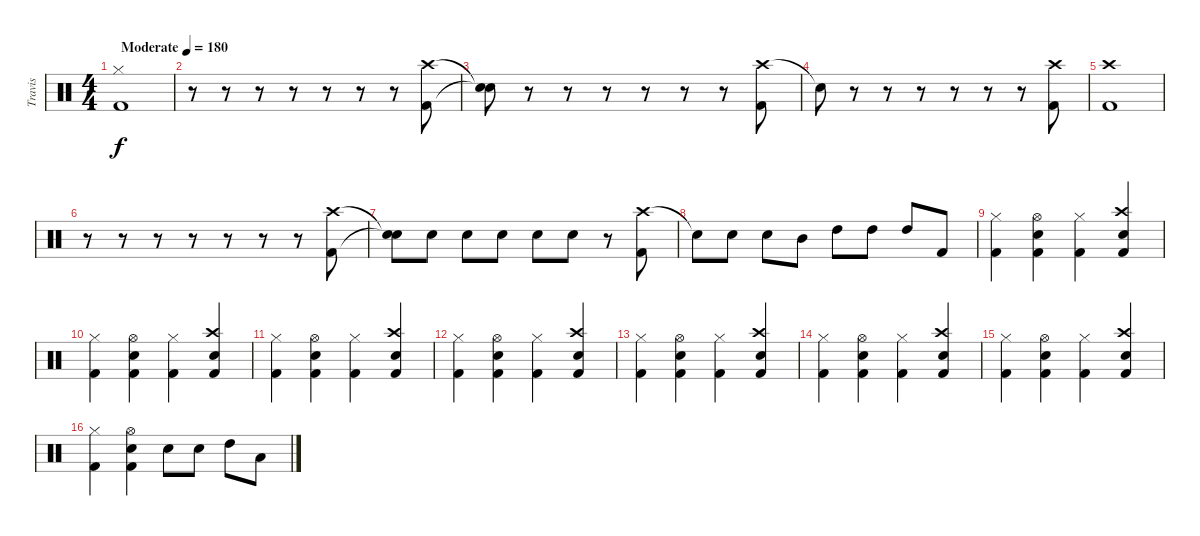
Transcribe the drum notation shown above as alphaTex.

\track ("Travis" "Travis") {instrument percussion}
\staff {score}
\articulation defaults
\ts (4 4)
\tempo (180 "Moderate")
\clef neutral
\ks c
("Hi-Hat (closed)" "Kick (hit) 2").1{dy f} |
r.8 r.8 r.8 r.8 r.8 r.8 r.8 ("Crash high (hit)" "Kick (hit) 2").8 |
("Snare (hit)"{t} "Snare (hit)"{t}).8 r.8 r.8 r.8 r.8 r.8 r.8 ("Crash high (hit)" "Kick (hit) 2").8 |
"Snare (hit)"{t}.8 r.8 r.8 r.8 r.8 r.8 r.8 ("Crash high (hit)" "Kick (hit) 2").8 |
("Crash high (hit)" "Kick (hit) 2").1 |
r.8 r.8 r.8 r.8 r.8 r.8 r.8 ("Crash high (hit)" "Kick (hit) 2").8 |
("Snare (hit)"{t} "Snare (hit)"{t}).8 "Snare (hit) 2".8 "Snare (hit) 2".8 "Snare (hit) 2".8 "Snare (hit) 2".8 "Snare (hit) 2".8 r.8 ("Crash high (hit)" "Kick (hit) 2").8 |
"Snare (hit)"{t}.8 "Snare (hit) 2".8 "Snare (hit) 2".8 "Mid Tom (hit)".8 "High Tom (hit)".8 "High Tom (hit)".8 "High Tom (hit)".8 "Kick (hit) 2".8 |
("Hi-Hat (closed)" "Kick (hit) 2").4 ("Hi-Hat (open)" "Snare (hit) 2" "Kick (hit) 2").4 ("Hi-Hat (closed)" "Kick (hit) 2").4 ("Crash high (hit)" "Snare (hit) 2" "Kick (hit) 2").4 |
("Hi-Hat (closed)" "Kick (hit) 2").4 ("Hi-Hat (open)" "Snare (hit) 2" "Kick (hit) 2").4 ("Hi-Hat (closed)" "Kick (hit) 2").4 ("Crash high (hit)" "Snare (hit) 2" "Kick (hit) 2").4 |
("Hi-Hat (closed)" "Kick (hit) 2").4 ("Hi-Hat (open)" "Snare (hit) 2" "Kick (hit) 2").4 ("Hi-Hat (closed)" "Kick (hit) 2").4 ("Crash high (hit)" "Snare (hit) 2" "Kick (hit) 2").4 |
("Hi-Hat (closed)" "Kick (hit) 2").4 ("Hi-Hat (open)" "Snare (hit) 2" "Kick (hit) 2").4 ("Hi-Hat (closed)" "Kick (hit) 2").4 ("Crash high (hit)" "Snare (hit) 2" "Kick (hit) 2").4 |
("Hi-Hat (closed)" "Kick (hit) 2").4 ("Hi-Hat (open)" "Snare (hit) 2" "Kick (hit) 2").4 ("Hi-Hat (closed)" "Kick (hit) 2").4 ("Crash high (hit)" "Snare (hit) 2" "Kick (hit) 2").4 |
("Hi-Hat (closed)" "Kick (hit) 2").4 ("Hi-Hat (open)" "Snare (hit) 2" "Kick (hit) 2").4 ("Hi-Hat (closed)" "Kick (hit) 2").4 ("Crash high (hit)" "Snare (hit) 2" "Kick (hit) 2").4 |
("Hi-Hat (closed)" "Kick (hit) 2").4 ("Hi-Hat (open)" "Snare (hit) 2" "Kick (hit) 2").4 ("Hi-Hat (closed)" "Kick (hit) 2").4 ("Crash high (hit)" "Snare (hit) 2" "Kick (hit) 2").4 |
("Hi-Hat (closed)" "Kick (hit) 2").4 ("Hi-Hat (open)" "Snare (hit) 2" "Kick (hit) 2").4 "Snare (hit) 2".8 "Snare (hit) 2".8 "High Tom (hit)".8 "Low Tom (hit)".8
